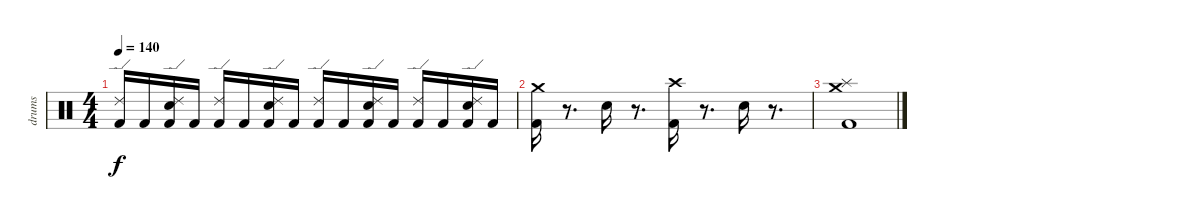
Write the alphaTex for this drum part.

\track ("drums" "drums") {instrument percussion}
\staff {score}
\articulation defaults
\ts (4 4)
\tempo 140
\clef neutral
\ks c
("Ride (edge) 2" "Kick (hit) 2").16{dy f} "Kick (hit) 2".16 ("Kick (hit) 2" "Ride (edge) 2" "Snare (hit) 2").16 "Kick (hit) 2".16 ("Ride (edge) 2" "Kick (hit) 2").16 "Kick (hit) 2".16 ("Kick (hit) 2" "Ride (edge) 2" "Snare (hit) 2").16 "Kick (hit) 2".16 ("Ride (edge) 2" "Kick (hit) 2").16 "Kick (hit) 2".16 ("Kick (hit) 2" "Ride (edge) 2" "Snare (hit) 2").16 "Kick (hit) 2".16 ("Ride (edge) 2" "Kick (hit) 2").16 "Kick (hit) 2".16 ("Kick (hit) 2" "Ride (edge) 2" "Snare (hit) 2").16 "Kick (hit) 2".16 |
("Crash medium (hit)" "Kick (hit) 2").16 r.8{d} "Snare (hit) 2".16 r.8{d} ("Crash high (hit)" "Kick (hit) 2").16 r.8{d} "Snare (hit) 2".16 r.8{d} |
("Splash (hit)" "Crash medium (hit)" "Kick (hit) 2").1
